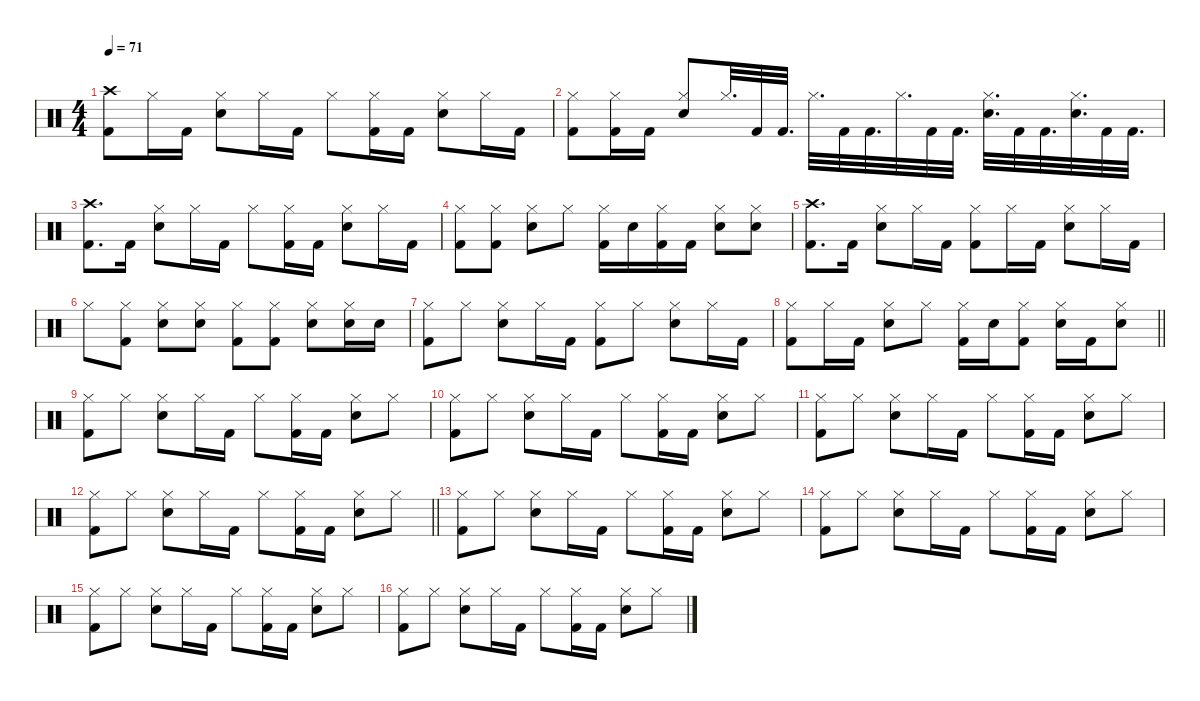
\defaultSystemsLayout 4
\hideDynamics
\bracketExtendMode nobrackets
\singleTrackTrackNamePolicy hidden
\multiTrackTrackNamePolicy hidden
\firstSystemTrackNameMode fullname
\firstSystemTrackNameOrientation horizontal
\otherSystemsTrackNameOrientation horizontal
\track ("Drums" "drm.") {instrument percussion}
\staff {score}
\articulation defaults
\ts (4 4)
\tempo 71
\clef neutral
\ks c
("Crash high (hit)" "Kick (hit) 2").8{dy f beam Down} "Hi-Hat (closed)".16{beam Down} "Kick (hit) 2".16{beam Down} ("Hi-Hat (closed)" "Snare (hit) 2").8{beam Down} "Hi-Hat (closed)".16{beam Down} "Kick (hit) 2".16{beam Down} "Hi-Hat (closed)".8{beam Down} ("Hi-Hat (closed)" "Kick (hit) 2").16{beam Down} "Kick (hit) 2".16{beam Down} ("Hi-Hat (closed)" "Snare (hit) 2").8{beam Down} "Hi-Hat (closed)".16{beam Down} "Kick (hit) 2".16{beam Down} |
("Hi-Hat (closed)" "Kick (hit) 2").8{beam Down} ("Hi-Hat (closed)" "Kick (hit) 2").16{beam Down} "Kick (hit) 2".16{beam Down} ("Hi-Hat (closed)" "Snare (hit) 2").8{beam Up} "Hi-Hat (closed)".32{d beam Up} "Kick (hit) 2".32{beam Up} "Kick (hit) 2".32{d beam Up} "Hi-Hat (closed)".32{d beam Down} "Kick (hit) 2".32{beam Down} "Kick (hit) 2".32{d beam Down} "Hi-Hat (closed)".32{d beam Down} "Kick (hit) 2".32{beam Down} "Kick (hit) 2".32{d beam Down} ("Snare (hit) 2" "Hi-Hat (closed)").32{d beam Down} "Kick (hit) 2".32{beam Down} "Kick (hit) 2".32{d beam Down} ("Snare (hit) 2" "Hi-Hat (closed)").32{d beam Down} "Kick (hit) 2".32{beam Down} "Kick (hit) 2".32{d beam Down} |
("Crash high (hit)" "Kick (hit) 2").8{d beam Down} "Kick (hit) 2".16{beam Down} ("Hi-Hat (closed)" "Snare (hit) 2").8{beam Down} "Hi-Hat (closed)".16{beam Down} "Kick (hit) 2".16{beam Down} "Hi-Hat (closed)".8{beam Down} ("Hi-Hat (closed)" "Kick (hit) 2").16{beam Down} "Kick (hit) 2".16{beam Down} ("Hi-Hat (closed)" "Snare (hit) 2").8{beam Down} "Hi-Hat (closed)".16{beam Down} "Kick (hit) 2".16{beam Down} |
("Kick (hit) 2" "Hi-Hat (closed)").8{beam Down} ("Kick (hit) 2" "Hi-Hat (closed)").8{beam Down} ("Hi-Hat (closed)" "Snare (hit) 2").8{beam Down} "Hi-Hat (closed)".8{beam Down} ("Hi-Hat (closed)" "Kick (hit) 2").16{beam Down} "Snare (hit) 2".16{beam Down} ("Kick (hit) 2" "Hi-Hat (closed)").16{beam Down} "Kick (hit) 2".16{beam Down} ("Hi-Hat (closed)" "Snare (hit) 2").8{beam Down} ("Hi-Hat (closed)" "Snare (hit) 2").8{beam Down} |
("Crash high (hit)" "Kick (hit) 2").8{d beam Down} "Kick (hit) 2".16{beam Down} ("Snare (hit) 2" "Hi-Hat (closed)").8{beam Down} "Hi-Hat (closed)".16{beam Down} "Kick (hit) 2".16{beam Down} ("Hi-Hat (closed)" "Kick (hit) 2").8{beam Down} "Hi-Hat (closed)".16{beam Down} "Kick (hit) 2".16{beam Down} ("Snare (hit) 2" "Hi-Hat (closed)").8{beam Down} "Hi-Hat (closed)".16{beam Down} "Kick (hit) 2".16{beam Down} |
"Hi-Hat (closed)".8{beam Down} ("Kick (hit) 2" "Hi-Hat (closed)").8{beam Down} ("Snare (hit) 2" "Hi-Hat (closed)").8{beam Down} ("Snare (hit) 2" "Hi-Hat (closed)").8{beam Down} ("Kick (hit) 2" "Hi-Hat (closed)").8{beam Down} ("Kick (hit) 2" "Hi-Hat (closed)").8{beam Down} ("Hi-Hat (closed)" "Snare (hit) 2").8{beam Down} ("Hi-Hat (closed)" "Snare (hit) 2").16{beam Down} "Snare (hit) 2".16{beam Down} |
("Kick (hit) 2" "Hi-Hat (closed)").8{beam Down} "Hi-Hat (closed)".8{beam Down} ("Snare (hit) 2" "Hi-Hat (closed)").8{beam Down} "Hi-Hat (closed)".16{beam Down} "Kick (hit) 2".16{beam Down} ("Kick (hit) 2" "Hi-Hat (closed)").8{beam Down} "Hi-Hat (closed)".8{beam Down} ("Snare (hit) 2" "Hi-Hat (closed)").8{beam Down} "Hi-Hat (closed)".16{beam Down} "Kick (hit) 2".16{beam Down} |
\barLineRight lightlight
("Hi-Hat (closed)" "Kick (hit) 2").8{beam Down} "Hi-Hat (closed)".16{beam Down} "Kick (hit) 2".16{beam Down} ("Snare (hit) 2" "Hi-Hat (closed)").8{beam Down} "Hi-Hat (closed)".8{beam Down} ("Hi-Hat (closed)" "Kick (hit) 2").16{beam Down} "Snare (hit) 2".16{beam Down} ("Hi-Hat (closed)" "Kick (hit) 2").8{beam Down} ("Snare (hit) 2" "Hi-Hat (closed)").16{beam Down} "Kick (hit) 2".16{beam Down} ("Snare (hit) 2" "Hi-Hat (closed)").8{beam Down} |
("Hi-Hat (closed)" "Kick (hit) 2").8{beam Down} "Hi-Hat (closed)".8{beam Down} ("Hi-Hat (closed)" "Snare (hit) 2").8{beam Down} "Hi-Hat (closed)".16{beam Down} "Kick (hit) 2".16{beam Down} "Hi-Hat (closed)".8{beam Down} ("Hi-Hat (closed)" "Kick (hit) 2").16{beam Down} "Kick (hit) 2".16{beam Down} ("Hi-Hat (closed)" "Snare (hit) 2").8{beam Down} "Hi-Hat (closed)".8{beam Down} |
("Hi-Hat (closed)" "Kick (hit) 2").8{beam Down} "Hi-Hat (closed)".8{beam Down} ("Hi-Hat (closed)" "Snare (hit) 2").8{beam Down} "Hi-Hat (closed)".16{beam Down} "Kick (hit) 2".16{beam Down} "Hi-Hat (closed)".8{beam Down} ("Hi-Hat (closed)" "Kick (hit) 2").16{beam Down} "Kick (hit) 2".16{beam Down} ("Hi-Hat (closed)" "Snare (hit) 2").8{beam Down} "Hi-Hat (closed)".8{beam Down} |
("Hi-Hat (closed)" "Kick (hit) 2").8{beam Down} "Hi-Hat (closed)".8{beam Down} ("Hi-Hat (closed)" "Snare (hit) 2").8{beam Down} "Hi-Hat (closed)".16{beam Down} "Kick (hit) 2".16{beam Down} "Hi-Hat (closed)".8{beam Down} ("Hi-Hat (closed)" "Kick (hit) 2").16{beam Down} "Kick (hit) 2".16{beam Down} ("Hi-Hat (closed)" "Snare (hit) 2").8{beam Down} "Hi-Hat (closed)".8{beam Down} |
\barLineRight lightlight
("Hi-Hat (closed)" "Kick (hit) 2").8{beam Down} "Hi-Hat (closed)".8{beam Down} ("Hi-Hat (closed)" "Snare (hit) 2").8{beam Down} "Hi-Hat (closed)".16{beam Down} "Kick (hit) 2".16{beam Down} "Hi-Hat (closed)".8{beam Down} ("Hi-Hat (closed)" "Kick (hit) 2").16{beam Down} "Kick (hit) 2".16{beam Down} ("Hi-Hat (closed)" "Snare (hit) 2").8{beam Down} "Hi-Hat (closed)".8{beam Down} |
("Hi-Hat (closed)" "Kick (hit) 2").8{beam Down} "Hi-Hat (closed)".8{beam Down} ("Hi-Hat (closed)" "Snare (hit) 2").8{beam Down} "Hi-Hat (closed)".16{beam Down} "Kick (hit) 2".16{beam Down} "Hi-Hat (closed)".8{beam Down} ("Hi-Hat (closed)" "Kick (hit) 2").16{beam Down} "Kick (hit) 2".16{beam Down} ("Hi-Hat (closed)" "Snare (hit) 2").8{beam Down} "Hi-Hat (closed)".8{beam Down} |
("Hi-Hat (closed)" "Kick (hit) 2").8{beam Down} "Hi-Hat (closed)".8{beam Down} ("Hi-Hat (closed)" "Snare (hit) 2").8{beam Down} "Hi-Hat (closed)".16{beam Down} "Kick (hit) 2".16{beam Down} "Hi-Hat (closed)".8{beam Down} ("Hi-Hat (closed)" "Kick (hit) 2").16{beam Down} "Kick (hit) 2".16{beam Down} ("Hi-Hat (closed)" "Snare (hit) 2").8{beam Down} "Hi-Hat (closed)".8{beam Down} |
("Hi-Hat (closed)" "Kick (hit) 2").8{beam Down} "Hi-Hat (closed)".8{beam Down} ("Hi-Hat (closed)" "Snare (hit) 2").8{beam Down} "Hi-Hat (closed)".16{beam Down} "Kick (hit) 2".16{beam Down} "Hi-Hat (closed)".8{beam Down} ("Hi-Hat (closed)" "Kick (hit) 2").16{beam Down} "Kick (hit) 2".16{beam Down} ("Hi-Hat (closed)" "Snare (hit) 2").8{beam Down} "Hi-Hat (closed)".8{beam Down} |
("Hi-Hat (closed)" "Kick (hit) 2").8{beam Down} "Hi-Hat (closed)".8{beam Down} ("Hi-Hat (closed)" "Snare (hit) 2").8{beam Down} "Hi-Hat (closed)".16{beam Down} "Kick (hit) 2".16{beam Down} "Hi-Hat (closed)".8{beam Down} ("Hi-Hat (closed)" "Kick (hit) 2").16{beam Down} "Kick (hit) 2".16{beam Down} ("Hi-Hat (closed)" "Snare (hit) 2").8{beam Down} "Hi-Hat (closed)".8{beam Down}
